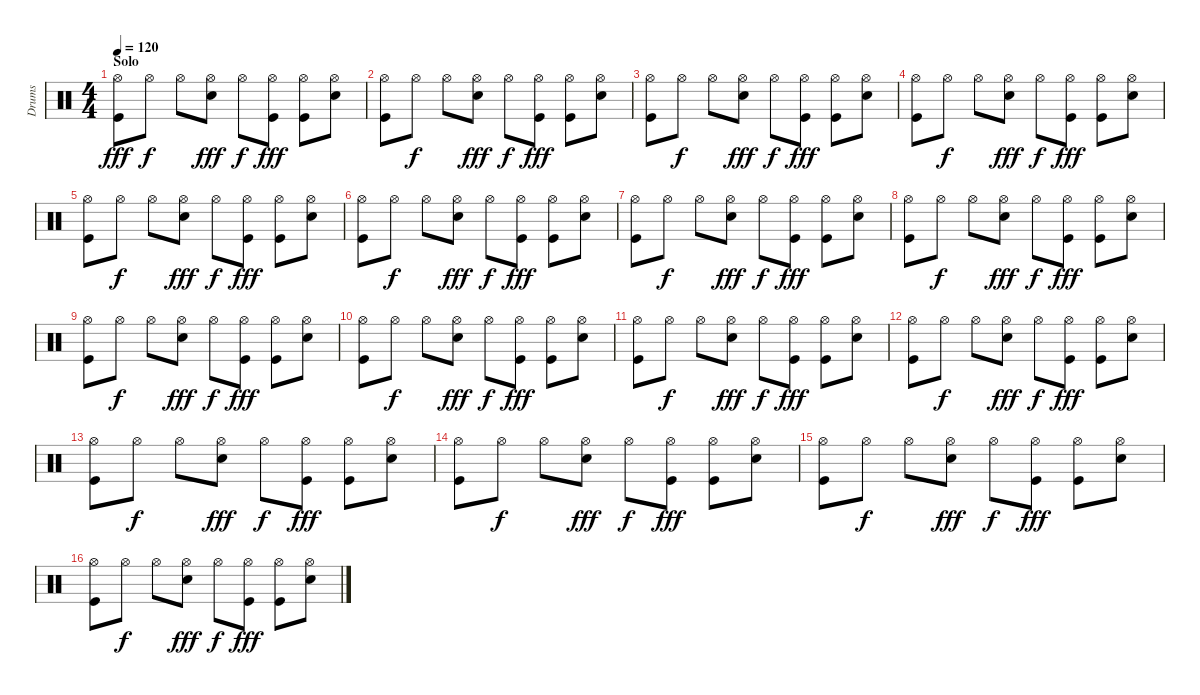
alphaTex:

\track ("Drums" "Drums") {instrument percussion}
\staff {score}
\articulation defaults
\ts (4 4)
\section ("" "Solo")
\tempo 120
\clef neutral
\ks c
("Kick (hit)" "Hi-Hat (open)").8{dy fff} "Hi-Hat (open)".8{dy f} "Hi-Hat (open)".8 ("Snare (hit) 2" "Hi-Hat (open)").8{dy fff} "Hi-Hat (open)".8{dy f} ("Kick (hit)" "Hi-Hat (open)").8{dy fff} ("Kick (hit)" "Hi-Hat (open)").8 ("Snare (hit) 2" "Hi-Hat (open)").8 |
("Kick (hit)" "Hi-Hat (open)").8 "Hi-Hat (open)".8{dy f} "Hi-Hat (open)".8 ("Snare (hit) 2" "Hi-Hat (open)").8{dy fff} "Hi-Hat (open)".8{dy f} ("Kick (hit)" "Hi-Hat (open)").8{dy fff} ("Kick (hit)" "Hi-Hat (open)").8 ("Snare (hit) 2" "Hi-Hat (open)").8 |
("Kick (hit)" "Hi-Hat (open)").8 "Hi-Hat (open)".8{dy f} "Hi-Hat (open)".8 ("Snare (hit) 2" "Hi-Hat (open)").8{dy fff} "Hi-Hat (open)".8{dy f} ("Kick (hit)" "Hi-Hat (open)").8{dy fff} ("Kick (hit)" "Hi-Hat (open)").8 ("Snare (hit) 2" "Hi-Hat (open)").8 |
("Kick (hit)" "Hi-Hat (open)").8 "Hi-Hat (open)".8{dy f} "Hi-Hat (open)".8 ("Snare (hit) 2" "Hi-Hat (open)").8{dy fff} "Hi-Hat (open)".8{dy f} ("Kick (hit)" "Hi-Hat (open)").8{dy fff} ("Kick (hit)" "Hi-Hat (open)").8 ("Snare (hit) 2" "Hi-Hat (open)").8 |
("Kick (hit)" "Hi-Hat (open)").8 "Hi-Hat (open)".8{dy f} "Hi-Hat (open)".8 ("Snare (hit) 2" "Hi-Hat (open)").8{dy fff} "Hi-Hat (open)".8{dy f} ("Kick (hit)" "Hi-Hat (open)").8{dy fff} ("Kick (hit)" "Hi-Hat (open)").8 ("Snare (hit) 2" "Hi-Hat (open)").8 |
("Kick (hit)" "Hi-Hat (open)").8 "Hi-Hat (open)".8{dy f} "Hi-Hat (open)".8 ("Snare (hit) 2" "Hi-Hat (open)").8{dy fff} "Hi-Hat (open)".8{dy f} ("Kick (hit)" "Hi-Hat (open)").8{dy fff} ("Kick (hit)" "Hi-Hat (open)").8 ("Snare (hit) 2" "Hi-Hat (open)").8 |
("Kick (hit)" "Hi-Hat (open)").8 "Hi-Hat (open)".8{dy f} "Hi-Hat (open)".8 ("Snare (hit) 2" "Hi-Hat (open)").8{dy fff} "Hi-Hat (open)".8{dy f} ("Kick (hit)" "Hi-Hat (open)").8{dy fff} ("Kick (hit)" "Hi-Hat (open)").8 ("Snare (hit) 2" "Hi-Hat (open)").8 |
("Kick (hit)" "Hi-Hat (open)").8 "Hi-Hat (open)".8{dy f} "Hi-Hat (open)".8 ("Snare (hit) 2" "Hi-Hat (open)").8{dy fff} "Hi-Hat (open)".8{dy f} ("Kick (hit)" "Hi-Hat (open)").8{dy fff} ("Kick (hit)" "Hi-Hat (open)").8 ("Snare (hit) 2" "Hi-Hat (open)").8 |
("Kick (hit)" "Hi-Hat (open)").8 "Hi-Hat (open)".8{dy f} "Hi-Hat (open)".8 ("Snare (hit) 2" "Hi-Hat (open)").8{dy fff} "Hi-Hat (open)".8{dy f} ("Kick (hit)" "Hi-Hat (open)").8{dy fff} ("Kick (hit)" "Hi-Hat (open)").8 ("Snare (hit) 2" "Hi-Hat (open)").8 |
("Kick (hit)" "Hi-Hat (open)").8 "Hi-Hat (open)".8{dy f} "Hi-Hat (open)".8 ("Snare (hit) 2" "Hi-Hat (open)").8{dy fff} "Hi-Hat (open)".8{dy f} ("Kick (hit)" "Hi-Hat (open)").8{dy fff} ("Kick (hit)" "Hi-Hat (open)").8 ("Snare (hit) 2" "Hi-Hat (open)").8 |
("Kick (hit)" "Hi-Hat (open)").8 "Hi-Hat (open)".8{dy f} "Hi-Hat (open)".8 ("Snare (hit) 2" "Hi-Hat (open)").8{dy fff} "Hi-Hat (open)".8{dy f} ("Kick (hit)" "Hi-Hat (open)").8{dy fff} ("Kick (hit)" "Hi-Hat (open)").8 ("Snare (hit) 2" "Hi-Hat (open)").8 |
("Kick (hit)" "Hi-Hat (open)").8 "Hi-Hat (open)".8{dy f} "Hi-Hat (open)".8 ("Snare (hit) 2" "Hi-Hat (open)").8{dy fff} "Hi-Hat (open)".8{dy f} ("Kick (hit)" "Hi-Hat (open)").8{dy fff} ("Kick (hit)" "Hi-Hat (open)").8 ("Snare (hit) 2" "Hi-Hat (open)").8 |
("Kick (hit)" "Hi-Hat (open)").8 "Hi-Hat (open)".8{dy f} "Hi-Hat (open)".8 ("Snare (hit) 2" "Hi-Hat (open)").8{dy fff} "Hi-Hat (open)".8{dy f} ("Kick (hit)" "Hi-Hat (open)").8{dy fff} ("Kick (hit)" "Hi-Hat (open)").8 ("Snare (hit) 2" "Hi-Hat (open)").8 |
("Kick (hit)" "Hi-Hat (open)").8 "Hi-Hat (open)".8{dy f} "Hi-Hat (open)".8 ("Snare (hit) 2" "Hi-Hat (open)").8{dy fff} "Hi-Hat (open)".8{dy f} ("Kick (hit)" "Hi-Hat (open)").8{dy fff} ("Kick (hit)" "Hi-Hat (open)").8 ("Snare (hit) 2" "Hi-Hat (open)").8 |
("Kick (hit)" "Hi-Hat (open)").8 "Hi-Hat (open)".8{dy f} "Hi-Hat (open)".8 ("Snare (hit) 2" "Hi-Hat (open)").8{dy fff} "Hi-Hat (open)".8{dy f} ("Kick (hit)" "Hi-Hat (open)").8{dy fff} ("Kick (hit)" "Hi-Hat (open)").8 ("Snare (hit) 2" "Hi-Hat (open)").8 |
("Kick (hit)" "Hi-Hat (open)").8 "Hi-Hat (open)".8{dy f} "Hi-Hat (open)".8 ("Snare (hit) 2" "Hi-Hat (open)").8{dy fff} "Hi-Hat (open)".8{dy f} ("Kick (hit)" "Hi-Hat (open)").8{dy fff} ("Kick (hit)" "Hi-Hat (open)").8 ("Snare (hit) 2" "Hi-Hat (open)").8
